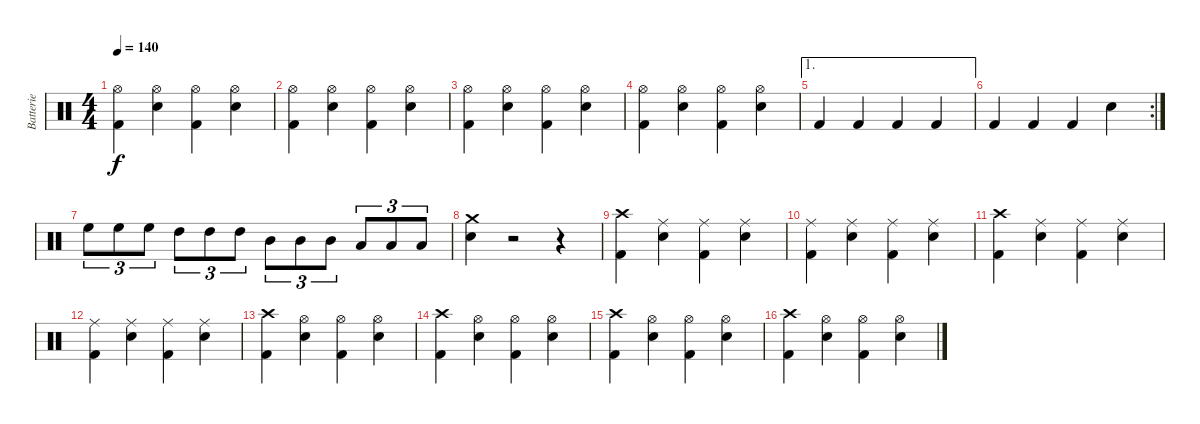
\track ("Batterie" "Batterie") {instrument percussion}
\staff {score}
\articulation defaults
\ts (4 4)
\tempo 140
\clef neutral
\ks c
("Hi-Hat (open)" "Kick (hit) 2").4{dy f} ("Hi-Hat (open)" "Electric Snare (hit)").4 ("Hi-Hat (open)" "Kick (hit) 2").4 ("Hi-Hat (open)" "Electric Snare (hit)").4 |
("Hi-Hat (open)" "Kick (hit) 2").4 ("Hi-Hat (open)" "Electric Snare (hit)").4 ("Hi-Hat (open)" "Kick (hit) 2").4 ("Hi-Hat (open)" "Electric Snare (hit)").4 |
("Hi-Hat (open)" "Kick (hit) 2").4 ("Hi-Hat (open)" "Electric Snare (hit)").4 ("Hi-Hat (open)" "Kick (hit) 2").4 ("Hi-Hat (open)" "Electric Snare (hit)").4 |
("Hi-Hat (open)" "Kick (hit) 2").4 ("Hi-Hat (open)" "Electric Snare (hit)").4 ("Hi-Hat (open)" "Kick (hit) 2").4 ("Hi-Hat (open)" "Electric Snare (hit)").4 |
\ae 1 "Kick (hit) 2".4 "Kick (hit) 2".4 "Kick (hit) 2".4 "Kick (hit) 2".4
|
\rc 2 "Kick (hit) 2".4 "Kick (hit) 2".4 "Kick (hit) 2".4 "Electric Snare (hit)".4
|
"High Floor Tom (hit)".8{tu (3 2)} "High Floor Tom (hit)".8{tu (3 2)} "High Floor Tom (hit)".8{tu (3 2)} "High Tom (hit)".8{tu (3 2)} "High Tom (hit)".8{tu (3 2)} "High Tom (hit)".8{tu (3 2)} "Mid Tom (hit)".8{tu (3 2)} "Mid Tom (hit)".8{tu (3 2)} "Mid Tom (hit)".8{tu (3 2)} "Low Tom (hit)".8{tu (3 2)} "Low Tom (hit)".8{tu (3 2)} "Low Tom (hit)".8{tu (3 2)} |
("Crash medium (hit)" "Electric Snare (hit)").4 r.2 r.4 |
("Crash high (hit)" "Kick (hit) 2").4 ("Ride (middle)" "Electric Snare (hit)").4 ("Ride (middle)" "Kick (hit) 2").4 ("Ride (middle)" "Electric Snare (hit)").4 |
("Ride (middle)" "Kick (hit) 2").4 ("Ride (middle)" "Electric Snare (hit)").4 ("Ride (middle)" "Kick (hit) 2").4 ("Ride (middle)" "Electric Snare (hit)").4 |
("Crash high (hit)" "Kick (hit) 2").4 ("Ride (middle)" "Electric Snare (hit)").4 ("Ride (middle)" "Kick (hit) 2").4 ("Ride (middle)" "Electric Snare (hit)").4 |
("Ride (middle)" "Kick (hit) 2").4 ("Ride (middle)" "Electric Snare (hit)").4 ("Ride (middle)" "Kick (hit) 2").4 ("Ride (middle)" "Electric Snare (hit)").4 |
("Crash high (hit)" "Kick (hit) 2").4 ("Hi-Hat (open)" "Electric Snare (hit)").4 ("Hi-Hat (open)" "Kick (hit) 2").4 ("Hi-Hat (open)" "Electric Snare (hit)").4 |
("Crash high (hit)" "Kick (hit) 2").4 ("Hi-Hat (open)" "Electric Snare (hit)").4 ("Hi-Hat (open)" "Kick (hit) 2").4 ("Hi-Hat (open)" "Electric Snare (hit)").4 |
("Crash high (hit)" "Kick (hit) 2").4 ("Hi-Hat (open)" "Electric Snare (hit)").4 ("Hi-Hat (open)" "Kick (hit) 2").4 ("Hi-Hat (open)" "Electric Snare (hit)").4 |
("Crash high (hit)" "Kick (hit) 2").4 ("Hi-Hat (open)" "Electric Snare (hit)").4 ("Hi-Hat (open)" "Kick (hit) 2").4 ("Hi-Hat (open)" "Electric Snare (hit)").4
